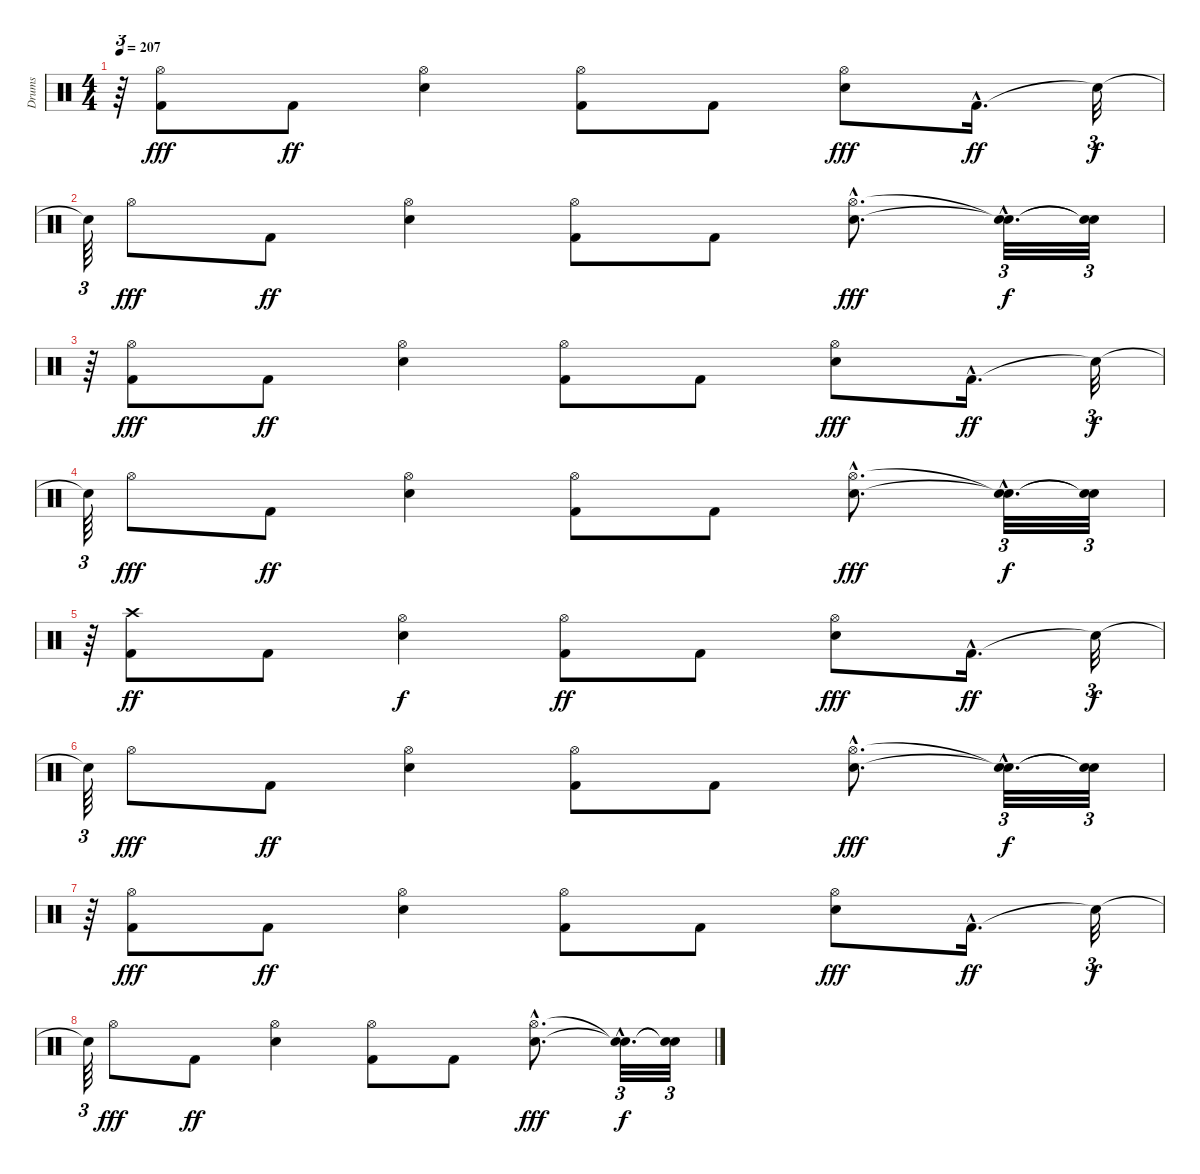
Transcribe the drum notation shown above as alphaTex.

\track ("Drums" "Drums") {instrument percussion}
\staff {score}
\articulation defaults
\ts (4 4)
\tempo 207
\clef neutral
\ks c
r.64{tu (3 2) dy f} ("Kick (hit) 2" "Hi-Hat (open)").8{dy fff} "Kick (hit) 2".8{dy ff} ("Snare (hit) 2" "Hi-Hat (open)").4 ("Kick (hit) 2" "Hi-Hat (open)").8 "Kick (hit) 2".8 ("Snare (hit) 2" "Hi-Hat (open)").8{dy fff} "Kick (hit) 2"{hac}.16{d dy ff} "Snare (hit)"{t}.32{tu (3 2) dy f} |
"Snare (hit)"{t}.64{tu (3 2)} "Hi-Hat (open)".8{dy fff} "Kick (hit) 2".8{dy ff} ("Snare (hit) 2" "Hi-Hat (open)").4 ("Kick (hit) 2" "Hi-Hat (open)").8 "Kick (hit) 2".8 ("Snare (hit) 2"{hac} "Hi-Hat (open)"{hac}).8{d dy fff} ("Snare (hit)"{hac t} "Snare (hit)"{hac t}).32{d tu (3 2) dy f} ("Snare (hit)"{t} "Snare (hit)"{t}).32{tu (3 2)} |
r.64{tu (3 2)} ("Kick (hit) 2" "Hi-Hat (open)").8{dy fff} "Kick (hit) 2".8{dy ff} ("Snare (hit) 2" "Hi-Hat (open)").4 ("Kick (hit) 2" "Hi-Hat (open)").8 "Kick (hit) 2".8 ("Snare (hit) 2" "Hi-Hat (open)").8{dy fff} "Kick (hit) 2"{hac}.16{d dy ff} "Snare (hit)"{t}.32{tu (3 2) dy f} |
"Snare (hit)"{t}.64{tu (3 2)} "Hi-Hat (open)".8{dy fff} "Kick (hit) 2".8{dy ff} ("Snare (hit) 2" "Hi-Hat (open)").4 ("Kick (hit) 2" "Hi-Hat (open)").8 "Kick (hit) 2".8 ("Snare (hit) 2"{hac} "Hi-Hat (open)"{hac}).8{d dy fff} ("Snare (hit)"{hac t} "Snare (hit)"{hac t}).32{d tu (3 2) dy f} ("Snare (hit)"{t} "Snare (hit)"{t}).32{tu (3 2)} |
r.64{tu (3 2)} ("Crash high (hit)" "Kick (hit) 2").8{dy ff} "Kick (hit) 2".8 ("Snare (hit) 2" "Hi-Hat (open)").4{dy f} ("Kick (hit) 2" "Hi-Hat (open)").8{dy ff} "Kick (hit) 2".8 ("Snare (hit) 2" "Hi-Hat (open)").8{dy fff} "Kick (hit) 2"{hac}.16{d dy ff} "Snare (hit)"{t}.32{tu (3 2) dy f} |
"Snare (hit)"{t}.64{tu (3 2)} "Hi-Hat (open)".8{dy fff} "Kick (hit) 2".8{dy ff} ("Snare (hit) 2" "Hi-Hat (open)").4 ("Kick (hit) 2" "Hi-Hat (open)").8 "Kick (hit) 2".8 ("Snare (hit) 2"{hac} "Hi-Hat (open)"{hac}).8{d dy fff} ("Snare (hit)"{hac t} "Snare (hit)"{hac t}).32{d tu (3 2) dy f} ("Snare (hit)"{t} "Snare (hit)"{t}).32{tu (3 2)} |
r.64{tu (3 2)} ("Kick (hit) 2" "Hi-Hat (open)").8{dy fff} "Kick (hit) 2".8{dy ff} ("Snare (hit) 2" "Hi-Hat (open)").4 ("Kick (hit) 2" "Hi-Hat (open)").8 "Kick (hit) 2".8 ("Snare (hit) 2" "Hi-Hat (open)").8{dy fff} "Kick (hit) 2"{hac}.16{d dy ff} "Snare (hit)"{t}.32{tu (3 2) dy f} |
"Snare (hit)"{t}.64{tu (3 2)} "Hi-Hat (open)".8{dy fff} "Kick (hit) 2".8{dy ff} ("Snare (hit) 2" "Hi-Hat (open)").4 ("Kick (hit) 2" "Hi-Hat (open)").8 "Kick (hit) 2".8 ("Snare (hit) 2"{hac} "Hi-Hat (open)"{hac}).8{d dy fff} ("Snare (hit)"{hac t} "Snare (hit)"{hac t}).32{d tu (3 2) dy f} ("Snare (hit)"{t} "Snare (hit)"{t}).32{tu (3 2)}
